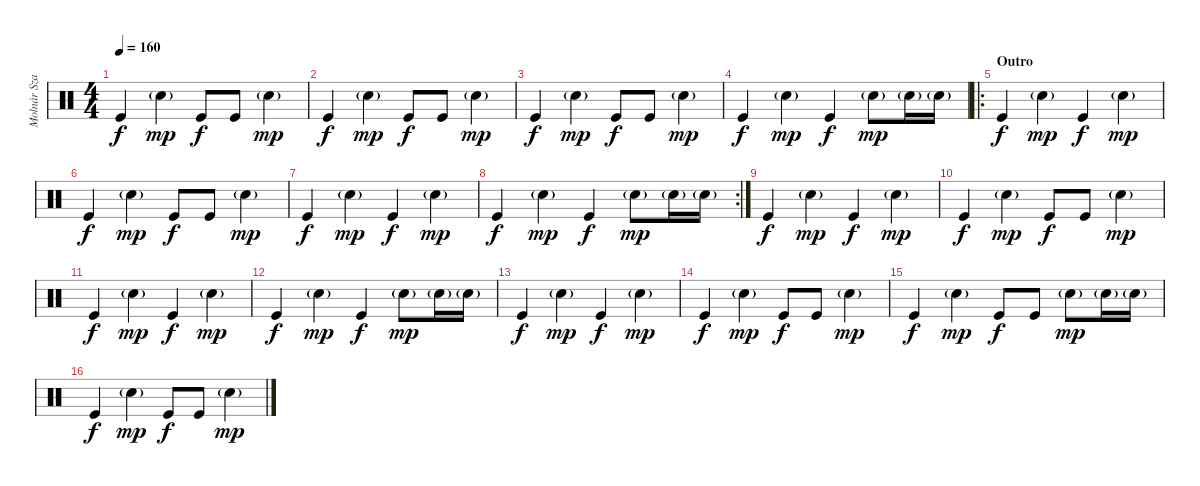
\track ("Molnár Szabolcs" "Molnár Sza") {instrument percussion}
\staff {score}
\articulation defaults
\ts (4 4)
\tempo 160
\clef neutral
\ks c "Kick (hit)".4{dy f} "Snare (hit) 2"{g}.4{dy mp} "Kick (hit)".8{dy f} "Kick (hit)".8 "Snare (hit) 2"{g}.4{dy mp}
|
"Kick (hit)".4{dy f} "Snare (hit) 2"{g}.4{dy mp} "Kick (hit)".8{dy f} "Kick (hit)".8 "Snare (hit) 2"{g}.4{dy mp} |
"Kick (hit)".4{dy f} "Snare (hit) 2"{g}.4{dy mp} "Kick (hit)".8{dy f} "Kick (hit)".8 "Snare (hit) 2"{g}.4{dy mp} |
"Kick (hit)".4{dy f} "Snare (hit) 2"{g}.4{dy mp} "Kick (hit)".4{dy f} "Snare (hit) 2"{g}.8{dy mp} "Snare (hit) 2"{g}.16 "Snare (hit) 2"{g}.16 |
\ro
\section ("" "Outro")
"Kick (hit)".4{dy f} "Snare (hit) 2"{g}.4{dy mp} "Kick (hit)".4{dy f} "Snare (hit) 2"{g}.4{dy mp} |
"Kick (hit)".4{dy f} "Snare (hit) 2"{g}.4{dy mp} "Kick (hit)".8{dy f} "Kick (hit)".8 "Snare (hit) 2"{g}.4{dy mp} |
"Kick (hit)".4{dy f} "Snare (hit) 2"{g}.4{dy mp} "Kick (hit)".4{dy f} "Snare (hit) 2"{g}.4{dy mp} |
\rc 2 "Kick (hit)".4{dy f} "Snare (hit) 2"{g}.4{dy mp} "Kick (hit)".4{dy f} "Snare (hit) 2"{g}.8{dy mp} "Snare (hit) 2"{g}.16 "Snare (hit) 2"{g}.16
|
"Kick (hit)".4{dy f} "Snare (hit) 2"{g}.4{dy mp} "Kick (hit)".4{dy f} "Snare (hit) 2"{g}.4{dy mp} |
"Kick (hit)".4{dy f} "Snare (hit) 2"{g}.4{dy mp} "Kick (hit)".8{dy f} "Kick (hit)".8 "Snare (hit) 2"{g}.4{dy mp} |
"Kick (hit)".4{dy f} "Snare (hit) 2"{g}.4{dy mp} "Kick (hit)".4{dy f} "Snare (hit) 2"{g}.4{dy mp} |
"Kick (hit)".4{dy f} "Snare (hit) 2"{g}.4{dy mp} "Kick (hit)".4{dy f} "Snare (hit) 2"{g}.8{dy mp} "Snare (hit) 2"{g}.16 "Snare (hit) 2"{g}.16 |
"Kick (hit)".4{dy f} "Snare (hit) 2"{g}.4{dy mp} "Kick (hit)".4{dy f} "Snare (hit) 2"{g}.4{dy mp} |
"Kick (hit)".4{dy f} "Snare (hit) 2"{g}.4{dy mp} "Kick (hit)".8{dy f} "Kick (hit)".8 "Snare (hit) 2"{g}.4{dy mp} |
"Kick (hit)".4{dy f} "Snare (hit) 2"{g}.4{dy mp} "Kick (hit)".8{dy f} "Kick (hit)".8 "Snare (hit) 2"{g}.8{dy mp} "Snare (hit) 2"{g}.16 "Snare (hit) 2"{g}.16 |
"Kick (hit)".4{dy f} "Snare (hit) 2"{g}.4{dy mp} "Kick (hit)".8{dy f} "Kick (hit)".8 "Snare (hit) 2"{g}.4{dy mp}
